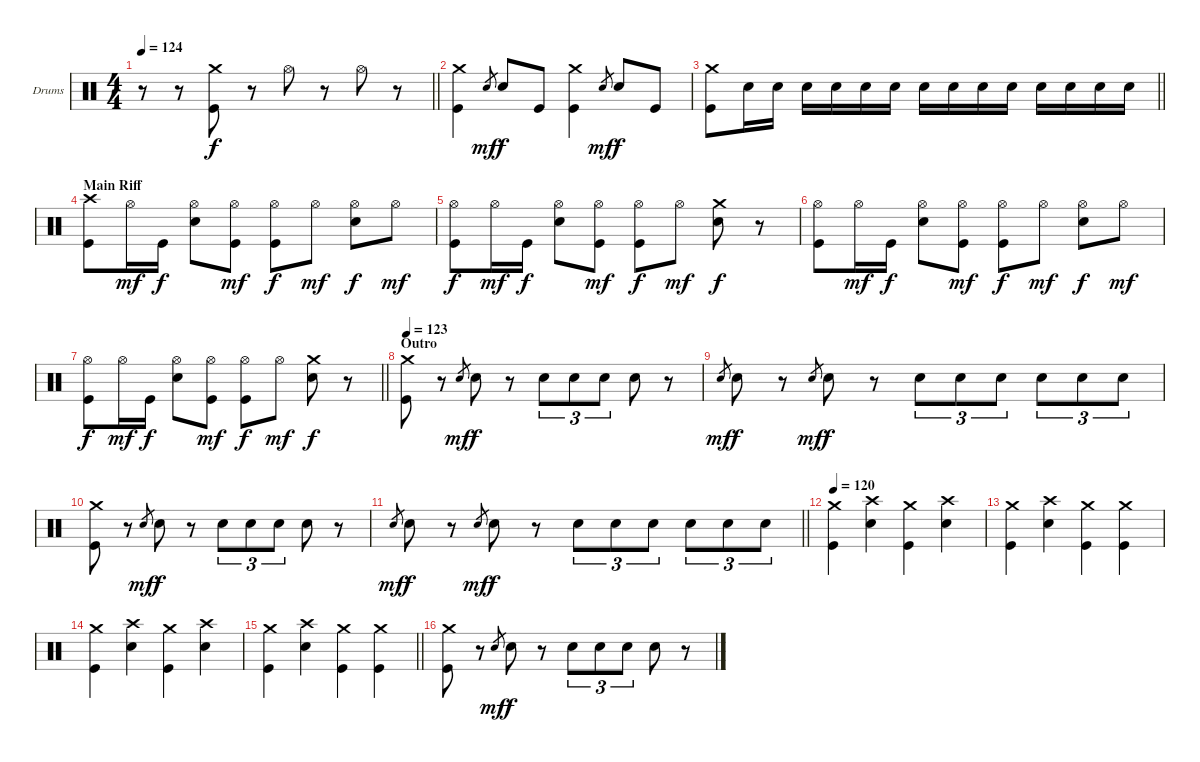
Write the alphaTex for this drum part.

\bracketExtendMode groupsimilarinstruments
\firstSystemTrackNameOrientation horizontal
\otherSystemsTrackNameOrientation horizontal
\track ("Drumkit" "Drums") {instrument percussion}
\staff {score}
\articulation defaults
\ts (4 4)
\tempo 124
\clef neutral
\barLineRight lightlight
\ks c
r.8{dy f} r.8 ("Crash medium (hit)" "Kick (hit)").8 r.8 "Hi-Hat (open)".8 r.8 "Hi-Hat (open)".8 r.8 |
("Crash medium (hit)" "Kick (hit)").4 "Snare (hit) 2".8{gr dy mf} "Snare (hit) 2".8{dy f} "Kick (hit)".8 ("Crash medium (hit)" "Kick (hit)").4 "Snare (hit) 2".8{gr dy mf} "Snare (hit) 2".8{dy f} "Kick (hit)".8 |
\barLineRight lightlight
("Crash medium (hit)" "Kick (hit)").8 "Snare (hit) 2".16 "Snare (hit) 2".16 "Snare (hit) 2".16 "Snare (hit) 2".16 "Snare (hit) 2".16 "Snare (hit) 2".16 "Snare (hit) 2".16 "Snare (hit) 2".16 "Snare (hit) 2".16 "Snare (hit) 2".16 "Snare (hit) 2".16 "Snare (hit) 2".16 "Snare (hit) 2".16 "Snare (hit) 2".16 |
\section ("" "Main Riff")
("Crash high (hit)" "Kick (hit)").8 "Hi-Hat (open)".16{dy mf} "Kick (hit)".16{dy f} ("Hi-Hat (open)" "Snare (hit) 2").8 ("Hi-Hat (open)" "Kick (hit)").8{dy mf} ("Hi-Hat (open)" "Kick (hit)").8{dy f} "Hi-Hat (open)".8{dy mf} ("Hi-Hat (open)" "Snare (hit) 2").8{dy f} "Hi-Hat (open)".8{dy mf} |
("Hi-Hat (open)" "Kick (hit)").8{dy f} "Hi-Hat (open)".16{dy mf} "Kick (hit)".16{dy f} ("Hi-Hat (open)" "Snare (hit) 2").8 ("Hi-Hat (open)" "Kick (hit)").8{dy mf} ("Hi-Hat (open)" "Kick (hit)").8{dy f} "Hi-Hat (open)".8{dy mf} ("Crash medium (hit)" "Snare (hit) 2").8{dy f} r.8 |
("Hi-Hat (open)" "Kick (hit)").8 "Hi-Hat (open)".16{dy mf} "Kick (hit)".16{dy f} ("Hi-Hat (open)" "Snare (hit) 2").8 ("Hi-Hat (open)" "Kick (hit)").8{dy mf} ("Hi-Hat (open)" "Kick (hit)").8{dy f} "Hi-Hat (open)".8{dy mf} ("Hi-Hat (open)" "Snare (hit) 2").8{dy f} "Hi-Hat (open)".8{dy mf} |
\barLineRight lightlight
("Hi-Hat (open)" "Kick (hit)").8{dy f} "Hi-Hat (open)".16{dy mf} "Kick (hit)".16{dy f} ("Hi-Hat (open)" "Snare (hit) 2").8 ("Hi-Hat (open)" "Kick (hit)").8{dy mf} ("Hi-Hat (open)" "Kick (hit)").8{dy f} "Hi-Hat (open)".8{dy mf} ("Crash medium (hit)" "Snare (hit) 2").8{dy f} r.8 |
\section ("" "Outro")
\tempo 123
("Crash medium (hit)" "Kick (hit)").8 r.8 "Snare (hit) 2".8{gr dy mf} "Snare (hit) 2".8{dy f} r.8 "Snare (hit) 2".8{tu (3 2)} "Snare (hit) 2".8{tu (3 2)} "Snare (hit) 2".8{tu (3 2)} "Snare (hit) 2".8 r.8 |
"Snare (hit) 2".8{gr dy mf} "Snare (hit) 2".8{dy f} r.8 "Snare (hit) 2".8{gr dy mf} "Snare (hit) 2".8{dy f} r.8 "Snare (hit) 2".8{tu (3 2)} "Snare (hit) 2".8{tu (3 2)} "Snare (hit) 2".8{tu (3 2)} "Snare (hit) 2".8{tu (3 2)} "Snare (hit) 2".8{tu (3 2)} "Snare (hit) 2".8{tu (3 2)} |
("Crash medium (hit)" "Kick (hit)").8 r.8 "Snare (hit) 2".8{gr dy mf} "Snare (hit) 2".8{dy f} r.8 "Snare (hit) 2".8{tu (3 2)} "Snare (hit) 2".8{tu (3 2)} "Snare (hit) 2".8{tu (3 2)} "Snare (hit) 2".8 r.8 |
\barLineRight lightlight "Snare (hit) 2".8{gr dy mf} "Snare (hit) 2".8{dy f}
r.8 "Snare (hit) 2".8{gr dy mf} "Snare (hit) 2".8{dy f} r.8 "Snare (hit) 2".8{tu (3 2)} "Snare (hit) 2".8{tu (3 2)} "Snare (hit) 2".8{tu (3 2)} "Snare (hit) 2".8{tu (3 2)} "Snare (hit) 2".8{tu (3 2)} "Snare (hit) 2".8{tu (3 2)} |
\tempo 120
("Crash medium (hit)" "Kick (hit)").4 ("Crash high (hit)" "Snare (hit) 2").4 ("Crash medium (hit)" "Kick (hit)").4 ("Crash high (hit)" "Snare (hit) 2").4 |
("Crash medium (hit)" "Kick (hit)").4 ("Crash high (hit)" "Snare (hit) 2").4 ("Crash medium (hit)" "Kick (hit)").4 ("Crash medium (hit)" "Kick (hit)").4 |
("Crash medium (hit)" "Kick (hit)").4 ("Crash high (hit)" "Snare (hit) 2").4 ("Crash medium (hit)" "Kick (hit)").4 ("Crash high (hit)" "Snare (hit) 2").4 |
\barLineRight lightlight
("Crash medium (hit)" "Kick (hit)").4 ("Crash high (hit)" "Snare (hit) 2").4 ("Crash medium (hit)" "Kick (hit)").4 ("Crash medium (hit)" "Kick (hit)").4 |
("Crash medium (hit)" "Kick (hit)").8 r.8 "Snare (hit) 2".8{gr dy mf} "Snare (hit) 2".8{dy f} r.8 "Snare (hit) 2".8{tu (3 2)} "Snare (hit) 2".8{tu (3 2)} "Snare (hit) 2".8{tu (3 2)} "Snare (hit) 2".8 r.8
